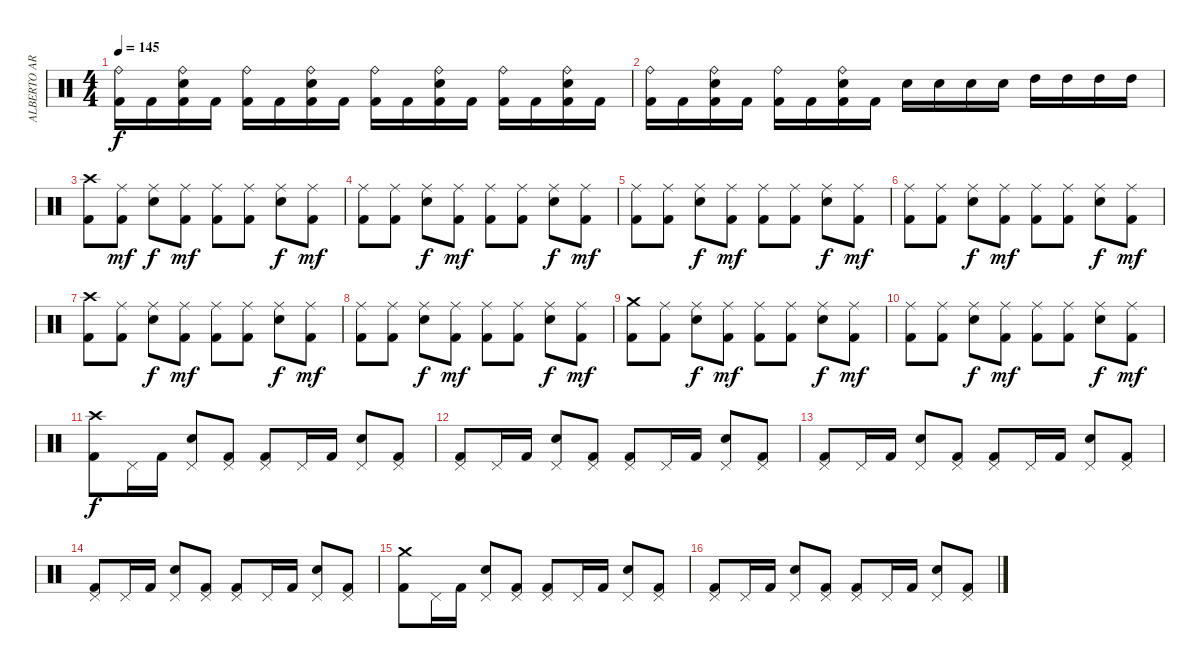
\track ("ALBERTO ARDINES" "ALBERTO AR") {instrument percussion}
\staff {score}
\articulation defaults
\ts (4 4)
\tempo 145
\clef neutral
\ks c
("Ride (bell)" "Kick (hit) 2").16{dy f} "Kick (hit) 2".16 ("Ride (bell)" "Electric Snare (hit)" "Kick (hit) 2").16 "Kick (hit) 2".16 ("Ride (bell)" "Kick (hit) 2").16 "Kick (hit) 2".16 ("Ride (bell)" "Electric Snare (hit)" "Kick (hit) 2").16 "Kick (hit) 2".16 ("Ride (bell)" "Kick (hit) 2").16 "Kick (hit) 2".16 ("Ride (bell)" "Electric Snare (hit)" "Kick (hit) 2").16 "Kick (hit) 2".16 ("Ride (bell)" "Kick (hit) 2").16 "Kick (hit) 2".16 ("Ride (bell)" "Electric Snare (hit)" "Kick (hit) 2").16 "Kick (hit) 2".16 |
("Ride (bell)" "Kick (hit) 2").16 "Kick (hit) 2".16 ("Ride (bell)" "Electric Snare (hit)" "Kick (hit) 2").16 "Kick (hit) 2".16 ("Ride (bell)" "Kick (hit) 2").16 "Kick (hit) 2".16 ("Ride (bell)" "Electric Snare (hit)" "Kick (hit) 2").16 "Kick (hit) 2".16 "Electric Snare (hit)".16 "Electric Snare (hit)".16 "Electric Snare (hit)".16 "Electric Snare (hit)".16 "High Tom (hit)".16 "High Tom (hit)".16 "High Tom (hit)".16 "High Tom (hit)".16 |
("Crash high (hit)" "Kick (hit) 2").8 ("Ride (middle)" "Kick (hit) 2").8{dy mf} ("Ride (middle)" "Electric Snare (hit)").8{dy f} ("Ride (middle)" "Kick (hit) 2").8{dy mf} ("Ride (middle)" "Kick (hit) 2").8 ("Ride (middle)" "Kick (hit) 2").8 ("Ride (middle)" "Electric Snare (hit)").8{dy f} ("Ride (middle)" "Kick (hit) 2").8{dy mf} |
("Ride (middle)" "Kick (hit) 2").8 ("Ride (middle)" "Kick (hit) 2").8 ("Ride (middle)" "Electric Snare (hit)").8{dy f} ("Ride (middle)" "Kick (hit) 2").8{dy mf} ("Ride (middle)" "Kick (hit) 2").8 ("Ride (middle)" "Kick (hit) 2").8 ("Ride (middle)" "Electric Snare (hit)").8{dy f} ("Ride (middle)" "Kick (hit) 2").8{dy mf} |
("Ride (middle)" "Kick (hit) 2").8 ("Ride (middle)" "Kick (hit) 2").8 ("Ride (middle)" "Electric Snare (hit)").8{dy f} ("Ride (middle)" "Kick (hit) 2").8{dy mf} ("Ride (middle)" "Kick (hit) 2").8 ("Ride (middle)" "Kick (hit) 2").8 ("Ride (middle)" "Electric Snare (hit)").8{dy f} ("Ride (middle)" "Kick (hit) 2").8{dy mf} |
("Ride (middle)" "Kick (hit) 2").8 ("Ride (middle)" "Kick (hit) 2").8 ("Ride (middle)" "Electric Snare (hit)").8{dy f} ("Ride (middle)" "Kick (hit) 2").8{dy mf} ("Ride (middle)" "Kick (hit) 2").8 ("Ride (middle)" "Kick (hit) 2").8 ("Ride (middle)" "Electric Snare (hit)").8{dy f} ("Ride (middle)" "Kick (hit) 2").8{dy mf} |
("Crash high (hit)" "Kick (hit) 2").8 ("Ride (middle)" "Kick (hit) 2").8 ("Ride (middle)" "Electric Snare (hit)").8{dy f} ("Ride (middle)" "Kick (hit) 2").8{dy mf} ("Ride (middle)" "Kick (hit) 2").8 ("Ride (middle)" "Kick (hit) 2").8 ("Ride (middle)" "Electric Snare (hit)").8{dy f} ("Ride (middle)" "Kick (hit) 2").8{dy mf} |
("Ride (middle)" "Kick (hit) 2").8 ("Ride (middle)" "Kick (hit) 2").8 ("Ride (middle)" "Electric Snare (hit)").8{dy f} ("Ride (middle)" "Kick (hit) 2").8{dy mf} ("Ride (middle)" "Kick (hit) 2").8 ("Ride (middle)" "Kick (hit) 2").8 ("Ride (middle)" "Electric Snare (hit)").8{dy f} ("Ride (middle)" "Kick (hit) 2").8{dy mf} |
("Crash medium (hit)" "Kick (hit) 2").8 ("Ride (middle)" "Kick (hit) 2").8 ("Ride (middle)" "Electric Snare (hit)").8{dy f} ("Ride (middle)" "Kick (hit) 2").8{dy mf} ("Ride (middle)" "Kick (hit) 2").8 ("Ride (middle)" "Kick (hit) 2").8 ("Ride (middle)" "Electric Snare (hit)").8{dy f} ("Ride (middle)" "Kick (hit) 2").8{dy mf} |
("Ride (middle)" "Kick (hit) 2").8 ("Ride (middle)" "Kick (hit) 2").8 ("Ride (middle)" "Electric Snare (hit)").8{dy f} ("Ride (middle)" "Kick (hit) 2").8{dy mf} ("Ride (middle)" "Kick (hit) 2").8 ("Ride (middle)" "Kick (hit) 2").8 ("Ride (middle)" "Electric Snare (hit)").8{dy f} ("Ride (middle)" "Kick (hit) 2").8{dy mf} |
("Crash high (hit)" "Kick (hit) 2").8{dy f} "Pedal Hi-Hat (hit)".16 "Kick (hit) 2".16 ("Pedal Hi-Hat (hit)" "Electric Snare (hit)").8 ("Pedal Hi-Hat (hit)" "Kick (hit) 2").8 ("Pedal Hi-Hat (hit)" "Kick (hit) 2").8 "Pedal Hi-Hat (hit)".16 "Kick (hit) 2".16 ("Pedal Hi-Hat (hit)" "Electric Snare (hit)").8 ("Pedal Hi-Hat (hit)" "Kick (hit) 2").8 |
("Pedal Hi-Hat (hit)" "Kick (hit) 2").8 "Pedal Hi-Hat (hit)".16 "Kick (hit) 2".16 ("Pedal Hi-Hat (hit)" "Electric Snare (hit)").8 ("Pedal Hi-Hat (hit)" "Kick (hit) 2").8 ("Pedal Hi-Hat (hit)" "Kick (hit) 2").8 "Pedal Hi-Hat (hit)".16 "Kick (hit) 2".16 ("Pedal Hi-Hat (hit)" "Electric Snare (hit)").8 ("Pedal Hi-Hat (hit)" "Kick (hit) 2").8 |
("Pedal Hi-Hat (hit)" "Kick (hit) 2").8 "Pedal Hi-Hat (hit)".16 "Kick (hit) 2".16 ("Pedal Hi-Hat (hit)" "Electric Snare (hit)").8 ("Pedal Hi-Hat (hit)" "Kick (hit) 2").8 ("Pedal Hi-Hat (hit)" "Kick (hit) 2").8 "Pedal Hi-Hat (hit)".16 "Kick (hit) 2".16 ("Pedal Hi-Hat (hit)" "Electric Snare (hit)").8 ("Pedal Hi-Hat (hit)" "Kick (hit) 2").8 |
("Pedal Hi-Hat (hit)" "Kick (hit) 2").8 "Pedal Hi-Hat (hit)".16 "Kick (hit) 2".16 ("Pedal Hi-Hat (hit)" "Electric Snare (hit)").8 ("Pedal Hi-Hat (hit)" "Kick (hit) 2").8 ("Pedal Hi-Hat (hit)" "Kick (hit) 2").8 "Pedal Hi-Hat (hit)".16 "Kick (hit) 2".16 ("Pedal Hi-Hat (hit)" "Electric Snare (hit)").8 ("Pedal Hi-Hat (hit)" "Kick (hit) 2").8 |
("Crash medium (hit)" "Kick (hit) 2").8 "Pedal Hi-Hat (hit)".16 "Kick (hit) 2".16 ("Pedal Hi-Hat (hit)" "Electric Snare (hit)").8 ("Pedal Hi-Hat (hit)" "Kick (hit) 2").8 ("Pedal Hi-Hat (hit)" "Kick (hit) 2").8 "Pedal Hi-Hat (hit)".16 "Kick (hit) 2".16 ("Pedal Hi-Hat (hit)" "Electric Snare (hit)").8 ("Pedal Hi-Hat (hit)" "Kick (hit) 2").8 |
("Pedal Hi-Hat (hit)" "Kick (hit) 2").8 "Pedal Hi-Hat (hit)".16 "Kick (hit) 2".16 ("Pedal Hi-Hat (hit)" "Electric Snare (hit)").8 ("Pedal Hi-Hat (hit)" "Kick (hit) 2").8 ("Pedal Hi-Hat (hit)" "Kick (hit) 2").8 "Pedal Hi-Hat (hit)".16 "Kick (hit) 2".16 ("Pedal Hi-Hat (hit)" "Electric Snare (hit)").8 ("Pedal Hi-Hat (hit)" "Kick (hit) 2").8
